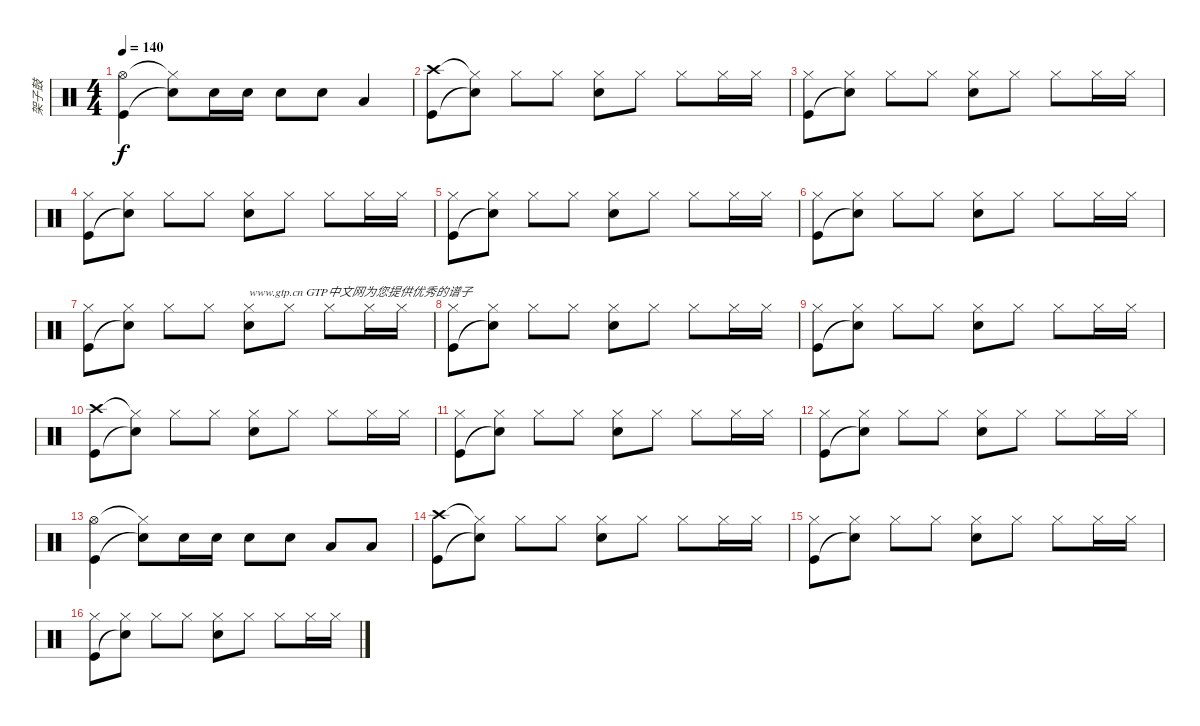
\track ("架子鼓" "架子鼓") {instrument percussion}
\staff {score}
\articulation defaults
\ts (4 4)
\tempo 140
\clef neutral
\ks c
("Hi-Hat (open)" "Kick (hit)").4{dy f} ("Hi-Hat (closed)"{t} "Snare (hit)"{t}).8 "Snare (hit) 2".16 "Snare (hit) 2".16 "Snare (hit) 2".8 "Snare (hit) 2".8 "Low Tom (hit)".4 |
("Crash high (hit)" "Kick (hit)").8 ("Hi-Hat (closed)"{t} "Snare (hit)"{t}).8 "Hi-Hat (closed)".8 "Hi-Hat (closed)".8 ("Hi-Hat (closed)" "Snare (hit) 2").8 "Hi-Hat (closed)".8 "Hi-Hat (closed)".8 "Hi-Hat (closed)".16 "Hi-Hat (closed)".16 |
("Hi-Hat (closed)" "Kick (hit)").8 ("Hi-Hat (closed)" "Snare (hit)"{t}).8 "Hi-Hat (closed)".8 "Hi-Hat (closed)".8 ("Hi-Hat (closed)" "Snare (hit) 2").8 "Hi-Hat (closed)".8 "Hi-Hat (closed)".8 "Hi-Hat (closed)".16 "Hi-Hat (closed)".16 |
("Hi-Hat (closed)" "Kick (hit)").8 ("Hi-Hat (closed)" "Snare (hit)"{t}).8 "Hi-Hat (closed)".8 "Hi-Hat (closed)".8 ("Hi-Hat (closed)" "Snare (hit) 2").8 "Hi-Hat (closed)".8 "Hi-Hat (closed)".8 "Hi-Hat (closed)".16 "Hi-Hat (closed)".16 |
("Hi-Hat (closed)" "Kick (hit)").8 ("Hi-Hat (closed)" "Snare (hit)"{t}).8 "Hi-Hat (closed)".8 "Hi-Hat (closed)".8 ("Hi-Hat (closed)" "Snare (hit) 2").8 "Hi-Hat (closed)".8 "Hi-Hat (closed)".8 "Hi-Hat (closed)".16 "Hi-Hat (closed)".16 |
("Hi-Hat (closed)" "Kick (hit)").8 ("Hi-Hat (closed)" "Snare (hit)"{t}).8 "Hi-Hat (closed)".8 "Hi-Hat (closed)".8 ("Hi-Hat (closed)" "Snare (hit) 2").8 "Hi-Hat (closed)".8 "Hi-Hat (closed)".8 "Hi-Hat (closed)".16 "Hi-Hat (closed)".16 |
("Hi-Hat (closed)" "Kick (hit)").8 ("Hi-Hat (closed)" "Snare (hit)"{t}).8 "Hi-Hat (closed)".8 "Hi-Hat (closed)".8 ("Hi-Hat (closed)" "Snare (hit) 2").8{txt "www.gtp.cn GTP中文网为您提供优秀的谱子"} "Hi-Hat (closed)".8 "Hi-Hat (closed)".8 "Hi-Hat (closed)".16 "Hi-Hat (closed)".16 |
("Hi-Hat (closed)" "Kick (hit)").8 ("Hi-Hat (closed)" "Snare (hit)"{t}).8 "Hi-Hat (closed)".8 "Hi-Hat (closed)".8 ("Hi-Hat (closed)" "Snare (hit) 2").8 "Hi-Hat (closed)".8 "Hi-Hat (closed)".8 "Hi-Hat (closed)".16 "Hi-Hat (closed)".16 |
("Hi-Hat (closed)" "Kick (hit)").8 ("Hi-Hat (closed)" "Snare (hit)"{t}).8 "Hi-Hat (closed)".8 "Hi-Hat (closed)".8 ("Hi-Hat (closed)" "Snare (hit) 2").8 "Hi-Hat (closed)".8 "Hi-Hat (closed)".8 "Hi-Hat (closed)".16 "Hi-Hat (closed)".16 |
("Crash high (hit)" "Kick (hit)").8 ("Hi-Hat (closed)"{t} "Snare (hit)"{t}).8 "Hi-Hat (closed)".8 "Hi-Hat (closed)".8 ("Hi-Hat (closed)" "Snare (hit) 2").8 "Hi-Hat (closed)".8 "Hi-Hat (closed)".8 "Hi-Hat (closed)".16 "Hi-Hat (closed)".16 |
("Hi-Hat (closed)" "Kick (hit)").8 ("Hi-Hat (closed)" "Snare (hit)"{t}).8 "Hi-Hat (closed)".8 "Hi-Hat (closed)".8 ("Hi-Hat (closed)" "Snare (hit) 2").8 "Hi-Hat (closed)".8 "Hi-Hat (closed)".8 "Hi-Hat (closed)".16 "Hi-Hat (closed)".16 |
("Hi-Hat (closed)" "Kick (hit)").8 ("Hi-Hat (closed)" "Snare (hit)"{t}).8 "Hi-Hat (closed)".8 "Hi-Hat (closed)".8 ("Hi-Hat (closed)" "Snare (hit) 2").8 "Hi-Hat (closed)".8 "Hi-Hat (closed)".8 "Hi-Hat (closed)".16 "Hi-Hat (closed)".16 |
("Hi-Hat (open)" "Kick (hit)").4 ("Hi-Hat (closed)"{t} "Snare (hit)"{t}).8 "Snare (hit) 2".16 "Snare (hit) 2".16 "Snare (hit) 2".8 "Snare (hit) 2".8 "Low Tom (hit)".8 "Low Tom (hit)".8 |
("Crash high (hit)" "Kick (hit)").8 ("Hi-Hat (closed)"{t} "Snare (hit)"{t}).8 "Hi-Hat (closed)".8 "Hi-Hat (closed)".8 ("Hi-Hat (closed)" "Snare (hit) 2").8 "Hi-Hat (closed)".8 "Hi-Hat (closed)".8 "Hi-Hat (closed)".16 "Hi-Hat (closed)".16 |
("Hi-Hat (closed)" "Kick (hit)").8 ("Hi-Hat (closed)" "Snare (hit)"{t}).8 "Hi-Hat (closed)".8 "Hi-Hat (closed)".8 ("Hi-Hat (closed)" "Snare (hit) 2").8 "Hi-Hat (closed)".8 "Hi-Hat (closed)".8 "Hi-Hat (closed)".16 "Hi-Hat (closed)".16 |
("Hi-Hat (closed)" "Kick (hit)").8 ("Hi-Hat (closed)" "Snare (hit)"{t}).8 "Hi-Hat (closed)".8 "Hi-Hat (closed)".8 ("Hi-Hat (closed)" "Snare (hit) 2").8 "Hi-Hat (closed)".8 "Hi-Hat (closed)".8 "Hi-Hat (closed)".16 "Hi-Hat (closed)".16
